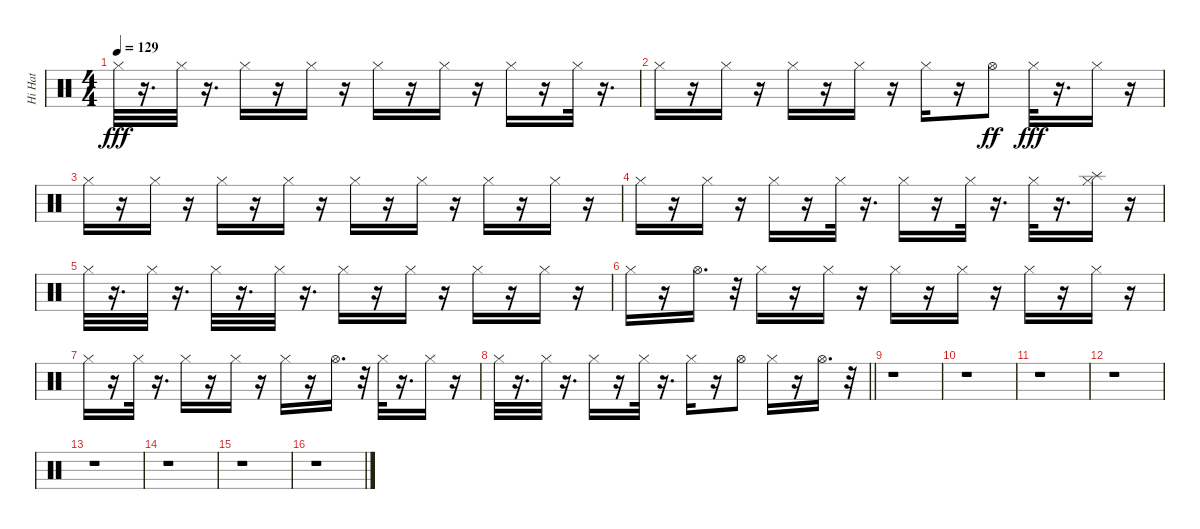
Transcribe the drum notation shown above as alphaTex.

\track ("Hi Hat" "Hi Hat") {instrument percussion}
\staff {score}
\articulation defaults
\ts (4 4)
\tempo 129
\clef neutral
\ks c "Hi-Hat (closed)".32{dy fff}
r.16{d} "Hi-Hat (closed)".32 r.16{d} "Hi-Hat (closed)".16 r.16 "Hi-Hat (closed)".16 r.16 "Hi-Hat (closed)".16 r.16 "Hi-Hat (closed)".16 r.16 "Hi-Hat (closed)".16 r.16 "Hi-Hat (closed)".32 r.16{d} |
"Hi-Hat (closed)".16 r.16 "Hi-Hat (closed)".16 r.16 "Hi-Hat (closed)".16 r.16 "Hi-Hat (closed)".16 r.16 "Hi-Hat (closed)".16 r.16 "Hi-Hat (open)".8{dy ff} "Hi-Hat (closed)".32{dy fff} r.16{d} "Hi-Hat (closed)".16 r.16 |
"Hi-Hat (closed)".16 r.16 "Hi-Hat (closed)".16 r.16 "Hi-Hat (closed)".16 r.16 "Hi-Hat (closed)".16 r.16 "Hi-Hat (closed)".16 r.16 "Hi-Hat (closed)".16 r.16 "Hi-Hat (closed)".16 r.16 "Hi-Hat (closed)".16 r.16 |
"Hi-Hat (closed)".16 r.16 "Hi-Hat (closed)".16 r.16 "Hi-Hat (closed)".16 r.16 "Hi-Hat (closed)".32 r.16{d} "Hi-Hat (closed)".16 r.16 "Hi-Hat (closed)".32 r.16{d} "Hi-Hat (closed)".32 r.16{d} ("Hi-Hat (closed)" "Splash (hit)").16 r.16 |
"Hi-Hat (closed)".32 r.16{d} "Hi-Hat (closed)".32 r.16{d} "Hi-Hat (closed)".32 r.16{d} "Hi-Hat (closed)".32 r.16{d} "Hi-Hat (closed)".16 r.16 "Hi-Hat (closed)".16 r.16 "Hi-Hat (closed)".16 r.16 "Hi-Hat (closed)".16 r.16 |
"Hi-Hat (closed)".16 r.16 "Hi-Hat (open)".16{d} r.32 "Hi-Hat (closed)".16 r.16 "Hi-Hat (closed)".16 r.16 "Hi-Hat (closed)".16 r.16 "Hi-Hat (closed)".16 r.16 "Hi-Hat (closed)".16 r.16 "Hi-Hat (closed)".16 r.16 |
"Hi-Hat (closed)".16 r.16 "Hi-Hat (closed)".32 r.16{d} "Hi-Hat (closed)".16 r.16 "Hi-Hat (closed)".16 r.16 "Hi-Hat (closed)".16 r.16 "Hi-Hat (open)".16{d} r.32 "Hi-Hat (closed)".32 r.16{d} "Hi-Hat (closed)".16 r.16 |
\barLineRight lightlight "Hi-Hat (closed)".32
r.16{d} "Hi-Hat (closed)".32 r.16{d} "Hi-Hat (closed)".16 r.16 "Hi-Hat (closed)".32 r.16{d} "Hi-Hat (closed)".16 r.16 "Hi-Hat (open)".8 "Hi-Hat (closed)".16 r.16 "Hi-Hat (open)".16{d} r.32 |
r.1 |
r.1 |
r.1 |
r.1 |
r.1 |
r.1 |
r.1 |
r.1
